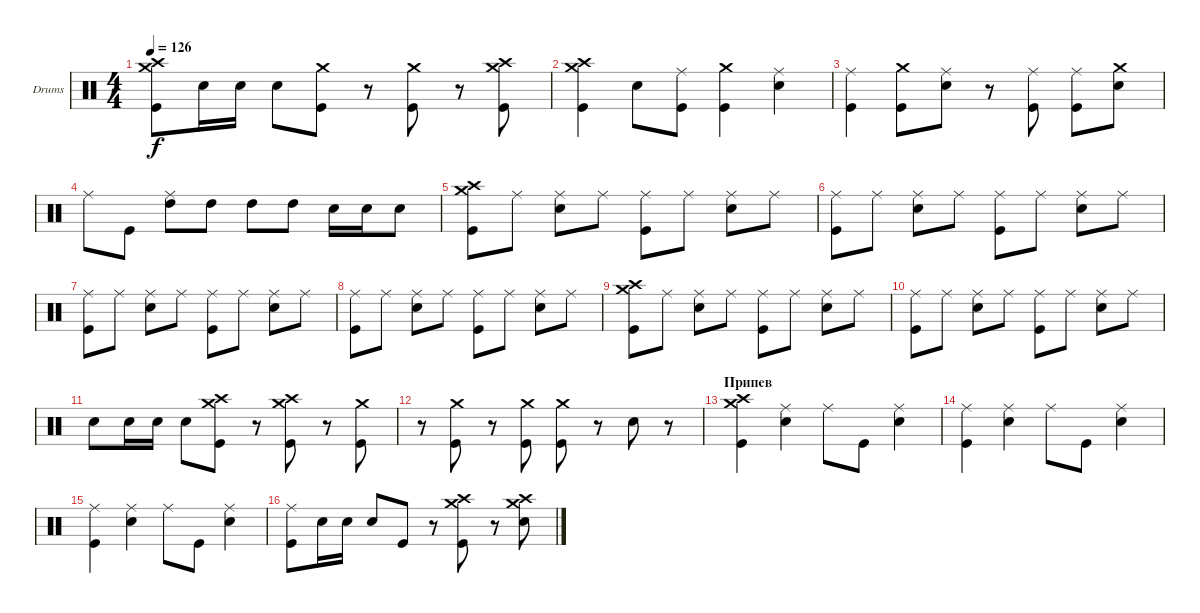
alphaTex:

\bracketExtendMode groupsimilarinstruments
\firstSystemTrackNameOrientation horizontal
\otherSystemsTrackNameOrientation horizontal
\track ("Александр Манякин" "Drums") {instrument percussion}
\staff {score}
\articulation defaults
\ts (4 4)
\tempo 126
\clef neutral
\ks c
("Kick (hit)" "Crash medium (hit)" "Crash high (hit)").8{dy f} "Snare (hit) 2".16 "Snare (hit) 2".16 "Snare (hit) 2".8 ("Kick (hit)" "Crash medium (hit)").8 r.8 ("Kick (hit)" "Crash medium (hit)").8 r.8 ("Kick (hit)" "Crash high (hit)" "Crash medium (hit)").8 |
("Kick (hit)" "Crash medium (hit)" "Crash high (hit)").4 "Snare (hit) 2".8 ("Kick (hit)" "Ride (middle)").8 ("Kick (hit)" "Crash medium (hit)").4 ("Snare (hit) 2" "Ride (middle)").4 |
("Kick (hit)" "Ride (middle)").4 ("Kick (hit)" "Crash medium (hit)").8 ("Snare (hit) 2" "Ride (middle)").8 r.8 ("Kick (hit)" "Ride (middle)").8 ("Kick (hit)" "Ride (middle)").8 ("Snare (hit) 2" "Crash medium (hit)").8 |
"Ride (middle)".8 "Kick (hit)".8 ("High Tom (hit)" "Ride (middle)").8 "High Tom (hit)".8 "High Tom (hit)".8 "High Tom (hit)".8 "Snare (hit) 2".16 "Snare (hit) 2".16 "Snare (hit) 2".8 |
("Kick (hit)" "Crash medium (hit)" "Crash high (hit)").8 "Ride (middle)".8 ("Snare (hit) 2" "Ride (middle)").8 "Ride (middle)".8 ("Kick (hit)" "Ride (middle)").8 "Ride (middle)".8 ("Snare (hit) 2" "Ride (middle)").8 "Ride (middle)".8 |
("Kick (hit)" "Ride (middle)").8 "Ride (middle)".8 ("Snare (hit) 2" "Ride (middle)").8 "Ride (middle)".8 ("Kick (hit)" "Ride (middle)").8 "Ride (middle)".8 ("Snare (hit) 2" "Ride (middle)").8 "Ride (middle)".8 |
("Kick (hit)" "Ride (middle)").8 "Ride (middle)".8 ("Snare (hit) 2" "Ride (middle)").8 "Ride (middle)".8 ("Kick (hit)" "Ride (middle)").8 "Ride (middle)".8 ("Snare (hit) 2" "Ride (middle)").8 "Ride (middle)".8 |
("Kick (hit)" "Ride (middle)").8 "Ride (middle)".8 ("Snare (hit) 2" "Ride (middle)").8 "Ride (middle)".8 ("Kick (hit)" "Ride (middle)").8 "Ride (middle)".8 ("Snare (hit) 2" "Ride (middle)").8 "Ride (middle)".8 |
("Kick (hit)" "Crash medium (hit)" "Crash high (hit)").8 "Ride (middle)".8 ("Snare (hit) 2" "Ride (middle)").8 "Ride (middle)".8 ("Kick (hit)" "Ride (middle)").8 "Ride (middle)".8 ("Snare (hit) 2" "Ride (middle)").8 "Ride (middle)".8 |
("Kick (hit)" "Ride (middle)").8 "Ride (middle)".8 ("Snare (hit) 2" "Ride (middle)").8 "Ride (middle)".8 ("Kick (hit)" "Ride (middle)").8 "Ride (middle)".8 ("Snare (hit) 2" "Ride (middle)").8 "Ride (middle)".8 |
"Snare (hit) 2".8 "Snare (hit) 2".16 "Snare (hit) 2".16 "Snare (hit) 2".8 ("Kick (hit)" "Crash medium (hit)" "Crash high (hit)").8 r.8 ("Kick (hit)" "Crash high (hit)" "Crash medium (hit)").8 r.8 ("Kick (hit)" "Crash medium (hit)").8 |
r.8 ("Kick (hit)" "Crash medium (hit)").8 r.8 ("Kick (hit)" "Crash medium (hit)").8 ("Kick (hit)" "Crash medium (hit)").8 r.8 "Snare (hit) 2".8 r.8 |
\section ("" "Припев")
("Kick (hit)" "Crash medium (hit)" "Crash high (hit)").4 ("Snare (hit) 2" "Ride (middle)").4 "Ride (middle)".8 "Kick (hit)".8 ("Snare (hit) 2" "Ride (middle)").4 |
("Kick (hit)" "Ride (middle)").4 ("Snare (hit) 2" "Ride (middle)").4 "Ride (middle)".8 "Kick (hit)".8 ("Snare (hit) 2" "Ride (middle)").4 |
("Kick (hit)" "Ride (middle)").4 ("Snare (hit) 2" "Ride (middle)").4 "Ride (middle)".8 "Kick (hit)".8 ("Snare (hit) 2" "Ride (middle)").4 |
("Kick (hit)" "Ride (middle)").8 "Snare (hit) 2".16 "Snare (hit) 2".16 "Snare (hit) 2".8 "Kick (hit)".8 r.8 ("Kick (hit)" "Crash medium (hit)" "Crash high (hit)").8 r.8 ("Snare (hit) 2" "Crash medium (hit)" "Crash high (hit)").8
